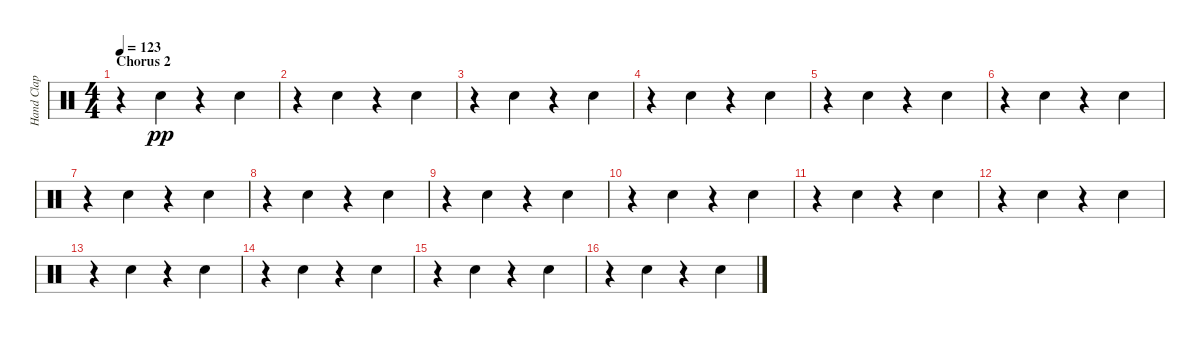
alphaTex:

\track ("Hand Clap" "Hand Clap") {instrument percussion}
\staff {score}
\articulation defaults
\ts (4 4)
\section ("" "Chorus 2")
\tempo 123
\clef neutral
\ks c
r.4{dy pp} "Hand Clap (hit)".4 r.4 "Hand Clap (hit)".4 |
r.4 "Hand Clap (hit)".4 r.4 "Hand Clap (hit)".4 |
r.4 "Hand Clap (hit)".4 r.4 "Hand Clap (hit)".4 |
r.4 "Hand Clap (hit)".4 r.4 "Hand Clap (hit)".4 |
r.4 "Hand Clap (hit)".4 r.4 "Hand Clap (hit)".4 |
r.4 "Hand Clap (hit)".4 r.4 "Hand Clap (hit)".4 |
r.4 "Hand Clap (hit)".4 r.4 "Hand Clap (hit)".4 |
r.4 "Hand Clap (hit)".4 r.4 "Hand Clap (hit)".4 |
r.4 "Hand Clap (hit)".4 r.4 "Hand Clap (hit)".4 |
r.4 "Hand Clap (hit)".4 r.4 "Hand Clap (hit)".4 |
r.4 "Hand Clap (hit)".4 r.4 "Hand Clap (hit)".4 |
r.4 "Hand Clap (hit)".4 r.4 "Hand Clap (hit)".4 |
r.4 "Hand Clap (hit)".4 r.4 "Hand Clap (hit)".4 |
r.4 "Hand Clap (hit)".4 r.4 "Hand Clap (hit)".4 |
r.4 "Hand Clap (hit)".4 r.4 "Hand Clap (hit)".4 |
r.4 "Hand Clap (hit)".4 r.4 "Hand Clap (hit)".4
